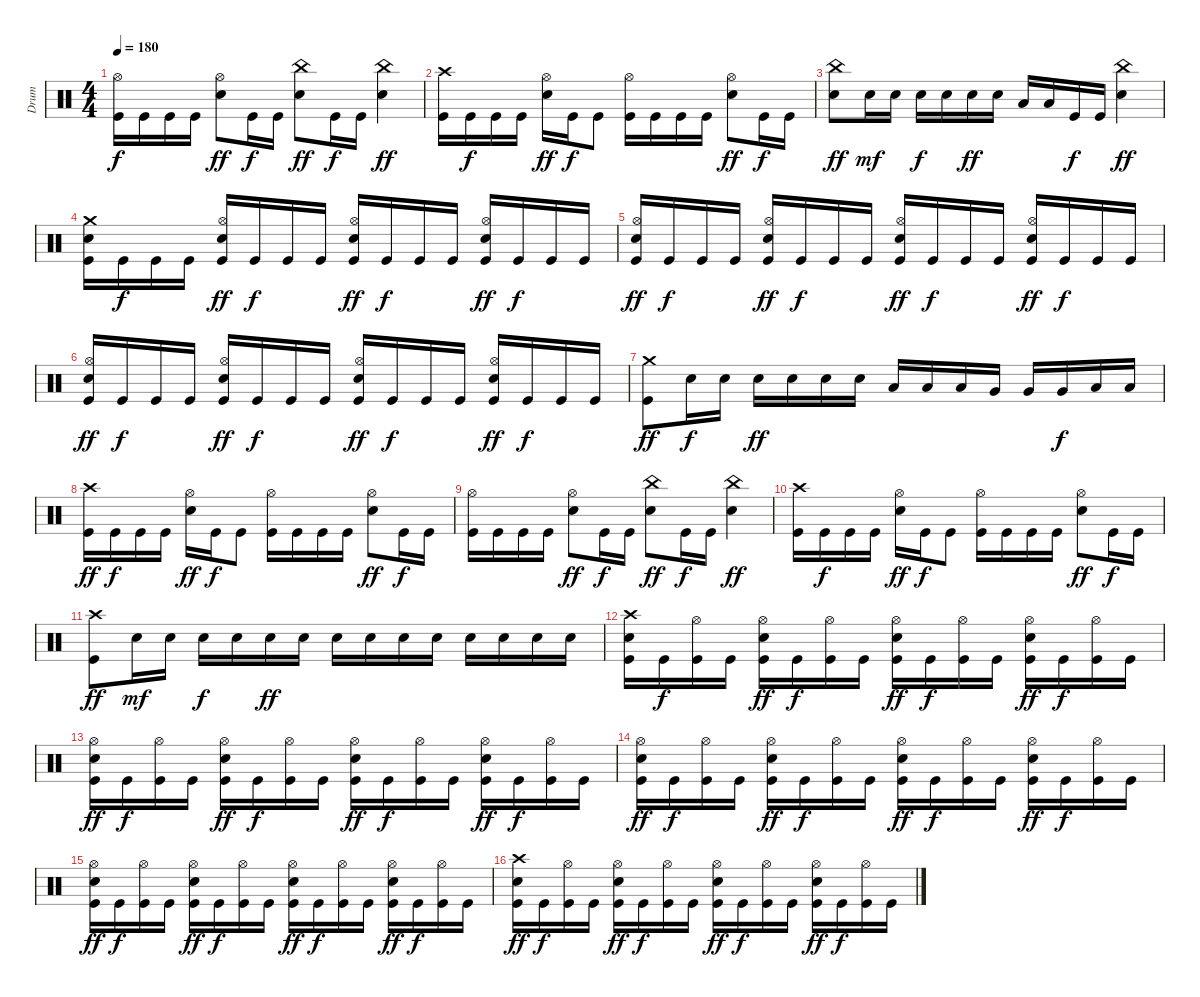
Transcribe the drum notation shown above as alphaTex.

\track ("Drum" "Drum") {instrument percussion}
\staff {score}
\articulation defaults
\ts (4 4)
\tempo 180
\clef neutral
\ks c
("Kick (hit)" "Hi-Hat (open)").16{dy f} "Kick (hit)".16 "Kick (hit)".16 "Kick (hit)".16 ("Electric Snare (hit)" "Hi-Hat (open)").8{dy ff} "Kick (hit)".16{dy f} "Kick (hit)".16 ("Electric Snare (hit)" "China (hit)").8{dy ff} "Kick (hit)".16{dy f} "Kick (hit)".16 ("Electric Snare (hit)" "China (hit)").4{dy ff} |
("Kick (hit)" "Crash high (hit)").16 "Kick (hit)".16{dy f} "Kick (hit)".16 "Kick (hit)".16 ("Electric Snare (hit)" "Hi-Hat (open)").16{dy ff} "Kick (hit)".16{dy f} "Kick (hit)".8 ("Kick (hit)" "Hi-Hat (open)").16 "Kick (hit)".16 "Kick (hit)".16 "Kick (hit)".16 ("Electric Snare (hit)" "Hi-Hat (open)").8{dy ff} "Kick (hit)".16{dy f} "Kick (hit)".16 |
("Electric Snare (hit)" "China (hit)").8{dy ff} "Electric Snare (hit)".16{dy mf} "Electric Snare (hit)".16 "Electric Snare (hit)".16{dy f} "Electric Snare (hit)".16 "Electric Snare (hit)".16{dy ff} "Electric Snare (hit)".16 "Low Tom (hit)".16 "Low Tom (hit)".16 "Kick (hit)".16{dy f} "Kick (hit)".16 ("Electric Snare (hit)" "China (hit)").4{dy ff} |
("Kick (hit)" "Electric Snare (hit)" "Crash medium (hit)").16 "Kick (hit)".16{dy f} "Kick (hit)".16 "Kick (hit)".16 ("Kick (hit)" "Electric Snare (hit)" "Hi-Hat (open)").16{dy ff} "Kick (hit)".16{dy f} "Kick (hit)".16 "Kick (hit)".16 ("Kick (hit)" "Electric Snare (hit)" "Hi-Hat (open)").16{dy ff} "Kick (hit)".16{dy f} "Kick (hit)".16 "Kick (hit)".16 ("Kick (hit)" "Electric Snare (hit)" "Hi-Hat (open)").16{dy ff} "Kick (hit)".16{dy f} "Kick (hit)".16 "Kick (hit)".16 |
("Kick (hit)" "Electric Snare (hit)" "Hi-Hat (open)").16{dy ff} "Kick (hit)".16{dy f} "Kick (hit)".16 "Kick (hit)".16 ("Kick (hit)" "Electric Snare (hit)" "Hi-Hat (open)").16{dy ff} "Kick (hit)".16{dy f} "Kick (hit)".16 "Kick (hit)".16 ("Kick (hit)" "Electric Snare (hit)" "Hi-Hat (open)").16{dy ff} "Kick (hit)".16{dy f} "Kick (hit)".16 "Kick (hit)".16 ("Kick (hit)" "Electric Snare (hit)" "Hi-Hat (open)").16{dy ff} "Kick (hit)".16{dy f} "Kick (hit)".16 "Kick (hit)".16 |
("Kick (hit)" "Electric Snare (hit)" "Hi-Hat (open)").16{dy ff} "Kick (hit)".16{dy f} "Kick (hit)".16 "Kick (hit)".16 ("Kick (hit)" "Electric Snare (hit)" "Hi-Hat (open)").16{dy ff} "Kick (hit)".16{dy f} "Kick (hit)".16 "Kick (hit)".16 ("Kick (hit)" "Electric Snare (hit)" "Hi-Hat (open)").16{dy ff} "Kick (hit)".16{dy f} "Kick (hit)".16 "Kick (hit)".16 ("Kick (hit)" "Electric Snare (hit)" "Hi-Hat (open)").16{dy ff} "Kick (hit)".16{dy f} "Kick (hit)".16 "Kick (hit)".16 |
("Kick (hit)" "Crash medium (hit)").8{dy ff} "Electric Snare (hit)".16{dy f} "Electric Snare (hit)".16 "Electric Snare (hit)".16{dy ff} "Electric Snare (hit)".16 "Electric Snare (hit)".16 "Electric Snare (hit)".16 "Low Tom (hit)".16 "Low Tom (hit)".16 "Low Tom (hit)".16 "Very Low Tom (hit)".16 "Very Low Tom (hit)".16 "Very Low Tom (hit)".16{dy f} "Low Floor Tom (hit)".16 "Low Floor Tom (hit)".16 |
("Kick (hit)" "Crash high (hit)").16{dy ff} "Kick (hit)".16{dy f} "Kick (hit)".16 "Kick (hit)".16 ("Electric Snare (hit)" "Hi-Hat (open)").16{dy ff} "Kick (hit)".16{dy f} "Kick (hit)".8 ("Kick (hit)" "Hi-Hat (open)").16 "Kick (hit)".16 "Kick (hit)".16 "Kick (hit)".16 ("Electric Snare (hit)" "Hi-Hat (open)").8{dy ff} "Kick (hit)".16{dy f} "Kick (hit)".16 |
("Kick (hit)" "Hi-Hat (open)").16 "Kick (hit)".16 "Kick (hit)".16 "Kick (hit)".16 ("Electric Snare (hit)" "Hi-Hat (open)").8{dy ff} "Kick (hit)".16{dy f} "Kick (hit)".16 ("Electric Snare (hit)" "China (hit)").8{dy ff} "Kick (hit)".16{dy f} "Kick (hit)".16 ("Electric Snare (hit)" "China (hit)").4{dy ff} |
("Kick (hit)" "Crash high (hit)").16 "Kick (hit)".16{dy f} "Kick (hit)".16 "Kick (hit)".16 ("Electric Snare (hit)" "Hi-Hat (open)").16{dy ff} "Kick (hit)".16{dy f} "Kick (hit)".8 ("Kick (hit)" "Hi-Hat (open)").16 "Kick (hit)".16 "Kick (hit)".16 "Kick (hit)".16 ("Electric Snare (hit)" "Hi-Hat (open)").8{dy ff} "Kick (hit)".16{dy f} "Kick (hit)".16 |
("Kick (hit)" "Crash high (hit)").8{dy ff} "Electric Snare (hit)".16{dy mf} "Electric Snare (hit)".16 "Electric Snare (hit)".16{dy f} "Electric Snare (hit)".16 "Electric Snare (hit)".16{dy ff} "Electric Snare (hit)".16 "Electric Snare (hit)".16 "Electric Snare (hit)".16 "Electric Snare (hit)".16 "Electric Snare (hit)".16 "Electric Snare (hit)".16 "Electric Snare (hit)".16 "Electric Snare (hit)".16 "Electric Snare (hit)".16 |
("Kick (hit)" "Electric Snare (hit)" "Crash high (hit)").16 "Kick (hit)".16{dy f} ("Kick (hit)" "Hi-Hat (open)").16 "Kick (hit)".16 ("Kick (hit)" "Electric Snare (hit)" "Hi-Hat (open)").16{dy ff} "Kick (hit)".16{dy f} ("Kick (hit)" "Hi-Hat (open)").16 "Kick (hit)".16 ("Kick (hit)" "Electric Snare (hit)" "Hi-Hat (open)").16{dy ff} "Kick (hit)".16{dy f} ("Kick (hit)" "Hi-Hat (open)").16 "Kick (hit)".16 ("Kick (hit)" "Electric Snare (hit)" "Hi-Hat (open)").16{dy ff} "Kick (hit)".16{dy f} ("Kick (hit)" "Hi-Hat (open)").16 "Kick (hit)".16 |
("Kick (hit)" "Electric Snare (hit)" "Hi-Hat (open)").16{dy ff} "Kick (hit)".16{dy f} ("Kick (hit)" "Hi-Hat (open)").16 "Kick (hit)".16 ("Kick (hit)" "Electric Snare (hit)" "Hi-Hat (open)").16{dy ff} "Kick (hit)".16{dy f} ("Kick (hit)" "Hi-Hat (open)").16 "Kick (hit)".16 ("Kick (hit)" "Electric Snare (hit)" "Hi-Hat (open)").16{dy ff} "Kick (hit)".16{dy f} ("Kick (hit)" "Hi-Hat (open)").16 "Kick (hit)".16 ("Kick (hit)" "Electric Snare (hit)" "Hi-Hat (open)").16{dy ff} "Kick (hit)".16{dy f} ("Kick (hit)" "Hi-Hat (open)").16 "Kick (hit)".16 |
("Kick (hit)" "Electric Snare (hit)" "Hi-Hat (open)").16{dy ff} "Kick (hit)".16{dy f} ("Kick (hit)" "Hi-Hat (open)").16 "Kick (hit)".16 ("Kick (hit)" "Electric Snare (hit)" "Hi-Hat (open)").16{dy ff} "Kick (hit)".16{dy f} ("Kick (hit)" "Hi-Hat (open)").16 "Kick (hit)".16 ("Kick (hit)" "Electric Snare (hit)" "Hi-Hat (open)").16{dy ff} "Kick (hit)".16{dy f} ("Kick (hit)" "Hi-Hat (open)").16 "Kick (hit)".16 ("Kick (hit)" "Electric Snare (hit)" "Hi-Hat (open)").16{dy ff} "Kick (hit)".16{dy f} ("Kick (hit)" "Hi-Hat (open)").16 "Kick (hit)".16 |
("Kick (hit)" "Electric Snare (hit)" "Hi-Hat (open)").16{dy ff} "Kick (hit)".16{dy f} ("Kick (hit)" "Hi-Hat (open)").16 "Kick (hit)".16 ("Kick (hit)" "Electric Snare (hit)" "Hi-Hat (open)").16{dy ff} "Kick (hit)".16{dy f} ("Kick (hit)" "Hi-Hat (open)").16 "Kick (hit)".16 ("Kick (hit)" "Electric Snare (hit)" "Hi-Hat (open)").16{dy ff} "Kick (hit)".16{dy f} ("Kick (hit)" "Hi-Hat (open)").16 "Kick (hit)".16 ("Kick (hit)" "Electric Snare (hit)" "Hi-Hat (open)").16{dy ff} "Kick (hit)".16{dy f} ("Kick (hit)" "Hi-Hat (open)").16 "Kick (hit)".16 |
("Kick (hit)" "Electric Snare (hit)" "Crash high (hit)").16{dy ff} "Kick (hit)".16{dy f} ("Kick (hit)" "Hi-Hat (open)").16 "Kick (hit)".16 ("Kick (hit)" "Electric Snare (hit)" "Hi-Hat (open)").16{dy ff} "Kick (hit)".16{dy f} ("Kick (hit)" "Hi-Hat (open)").16 "Kick (hit)".16 ("Kick (hit)" "Electric Snare (hit)" "Hi-Hat (open)").16{dy ff} "Kick (hit)".16{dy f} ("Kick (hit)" "Hi-Hat (open)").16 "Kick (hit)".16 ("Kick (hit)" "Electric Snare (hit)" "Hi-Hat (open)").16{dy ff} "Kick (hit)".16{dy f} ("Kick (hit)" "Hi-Hat (open)").16 "Kick (hit)".16
